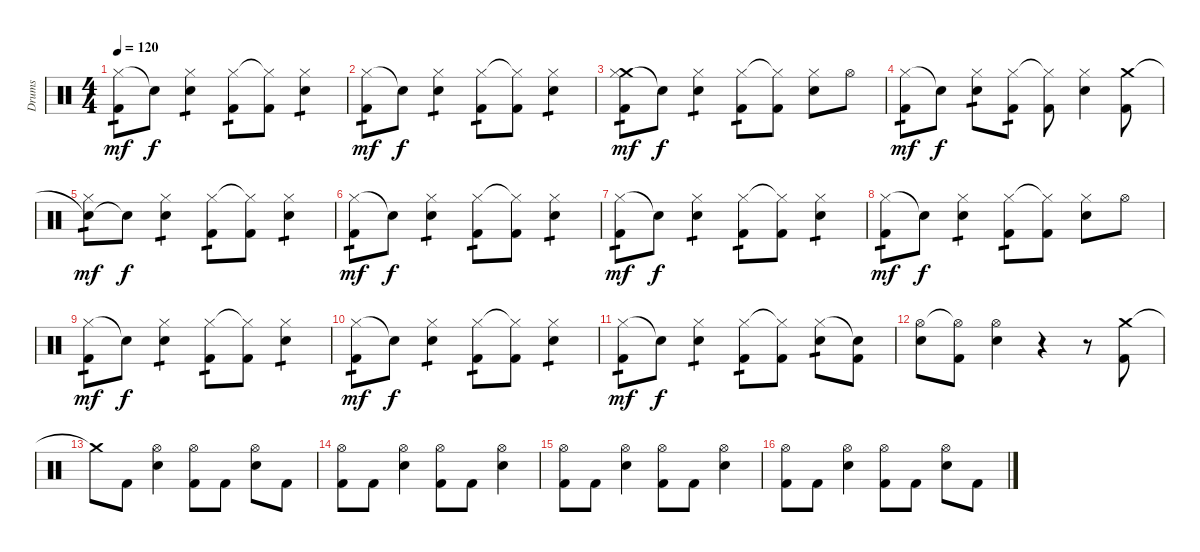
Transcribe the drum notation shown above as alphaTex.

\track ("Drums" "Drums") {instrument percussion}
\staff {score}
\articulation defaults
\ts (4 4)
\tempo 120
\clef neutral
\ks c
("Hi-Hat (closed)" "Kick (hit) 2").8{tp 1 dy mf} "Snare (hit)"{t}.8{dy f} ("Hi-Hat (closed)" "Electric Snare (hit)").4{tp 1} ("Hi-Hat (closed)" "Kick (hit) 2").8{tp 1} ("Hi-Hat (closed)"{t} "Kick (hit) 2").8 ("Hi-Hat (closed)" "Electric Snare (hit)").4{tp 1} |
("Hi-Hat (closed)" "Kick (hit) 2").8{tp 1 dy mf} "Snare (hit)"{t}.8{dy f} ("Hi-Hat (closed)" "Electric Snare (hit)").4{tp 1} ("Hi-Hat (closed)" "Kick (hit) 2").8{tp 1} ("Hi-Hat (closed)"{t} "Kick (hit) 2").8 ("Hi-Hat (closed)" "Electric Snare (hit)").4{tp 1} |
("Crash medium (hit)" "Hi-Hat (closed)" "Kick (hit) 2").8{tp 1 dy mf} "Snare (hit)"{t}.8{dy f} ("Hi-Hat (closed)" "Electric Snare (hit)").4{tp 1} ("Hi-Hat (closed)" "Kick (hit) 2").8{tp 1} ("Hi-Hat (closed)"{t} "Kick (hit) 2").8 ("Hi-Hat (closed)" "Electric Snare (hit)").8 "Hi-Hat (open)".8 |
("Hi-Hat (closed)" "Kick (hit) 2").8{tp 1 dy mf} "Snare (hit)"{t}.8{dy f} ("Hi-Hat (closed)" "Electric Snare (hit)").8{tp 1} ("Hi-Hat (closed)" "Kick (hit) 2").8{tp 1} ("Hi-Hat (closed)"{t} "Kick (hit) 2").8 ("Hi-Hat (closed)" "Electric Snare (hit)").4 ("Crash medium (hit)" "Kick (hit) 2").8 |
("Snare (hit)"{t} "Hi-Hat (closed)").8{tp 1 dy mf} "Snare (hit)"{t}.8{dy f} ("Hi-Hat (closed)" "Electric Snare (hit)").4{tp 1} ("Hi-Hat (closed)" "Kick (hit) 2").8{tp 1} ("Hi-Hat (closed)"{t} "Kick (hit) 2").8 ("Hi-Hat (closed)" "Electric Snare (hit)").4{tp 1} |
("Hi-Hat (closed)" "Kick (hit) 2").8{tp 1 dy mf} "Snare (hit)"{t}.8{dy f} ("Hi-Hat (closed)" "Electric Snare (hit)").4{tp 1} ("Hi-Hat (closed)" "Kick (hit) 2").8{tp 1} ("Hi-Hat (closed)"{t} "Kick (hit) 2").8 ("Hi-Hat (closed)" "Electric Snare (hit)").4{tp 1} |
("Hi-Hat (closed)" "Kick (hit) 2").8{tp 1 dy mf} "Snare (hit)"{t}.8{dy f} ("Hi-Hat (closed)" "Electric Snare (hit)").4{tp 1} ("Hi-Hat (closed)" "Kick (hit) 2").8{tp 1} ("Hi-Hat (closed)"{t} "Kick (hit) 2").8 ("Hi-Hat (closed)" "Electric Snare (hit)").4{tp 1} |
("Hi-Hat (closed)" "Kick (hit) 2").8{tp 1 dy mf} "Snare (hit)"{t}.8{dy f} ("Hi-Hat (closed)" "Electric Snare (hit)").4{tp 1} ("Hi-Hat (closed)" "Kick (hit) 2").8{tp 1} ("Hi-Hat (closed)"{t} "Kick (hit) 2").8 ("Hi-Hat (closed)" "Electric Snare (hit)").8 "Hi-Hat (open)".8 |
("Hi-Hat (closed)" "Kick (hit) 2").8{tp 1 dy mf} "Snare (hit)"{t}.8{dy f} ("Hi-Hat (closed)" "Electric Snare (hit)").4{tp 1} ("Hi-Hat (closed)" "Kick (hit) 2").8{tp 1} ("Hi-Hat (closed)"{t} "Kick (hit) 2").8 ("Hi-Hat (closed)" "Electric Snare (hit)").4{tp 1} |
("Hi-Hat (closed)" "Kick (hit) 2").8{tp 1 dy mf} "Snare (hit)"{t}.8{dy f} ("Hi-Hat (closed)" "Electric Snare (hit)").4{tp 1} ("Hi-Hat (closed)" "Kick (hit) 2").8{tp 1} ("Hi-Hat (closed)"{t} "Kick (hit) 2").8 ("Hi-Hat (closed)" "Electric Snare (hit)").4{tp 1} |
("Hi-Hat (closed)" "Kick (hit) 2").8{tp 1 dy mf} "Snare (hit)"{t}.8{dy f} ("Hi-Hat (closed)" "Electric Snare (hit)").4{tp 1} ("Hi-Hat (closed)" "Kick (hit) 2").8{tp 1} ("Hi-Hat (closed)"{t} "Kick (hit) 2").8 ("Hi-Hat (closed)" "Electric Snare (hit)").8{tp 1} ("Snare (hit)"{t} "Kick (hit) 2").8 |
("Hi-Hat (open)" "Electric Snare (hit)").8 ("Hi-Hat (open)"{t} "Kick (hit) 2").8 ("Hi-Hat (open)" "Electric Snare (hit)").4 r.4 r.8 ("Crash medium (hit)" "Kick (hit) 2").8 |
"Crash medium (hit)"{t}.8 "Kick (hit) 2".8 ("Hi-Hat (open)" "Electric Snare (hit)").4 ("Hi-Hat (open)" "Kick (hit) 2").8 "Kick (hit) 2".8 ("Hi-Hat (open)" "Electric Snare (hit)").8 "Kick (hit) 2".8 |
("Hi-Hat (open)" "Kick (hit) 2").8 "Kick (hit) 2".8 ("Hi-Hat (open)" "Electric Snare (hit)").4 ("Hi-Hat (open)" "Kick (hit) 2").8 "Kick (hit) 2".8 ("Hi-Hat (open)" "Electric Snare (hit)").4 |
("Hi-Hat (open)" "Kick (hit) 2").8 "Kick (hit) 2".8 ("Hi-Hat (open)" "Electric Snare (hit)").4 ("Hi-Hat (open)" "Kick (hit) 2").8 "Kick (hit) 2".8 ("Hi-Hat (open)" "Electric Snare (hit)").4 |
("Hi-Hat (open)" "Kick (hit) 2").8 "Kick (hit) 2".8 ("Hi-Hat (open)" "Electric Snare (hit)").4 ("Hi-Hat (open)" "Kick (hit) 2").8 "Kick (hit) 2".8 ("Hi-Hat (open)" "Electric Snare (hit)").8 "Kick (hit) 2".8
